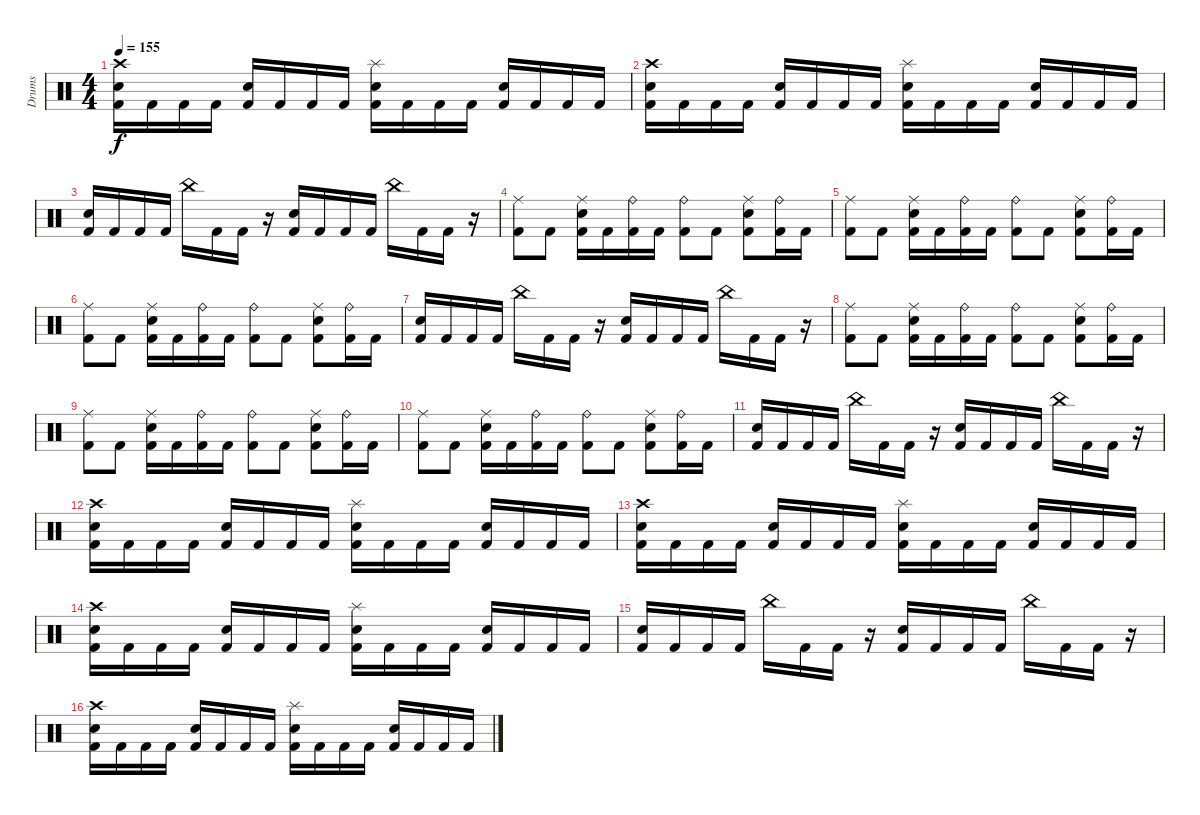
\track ("Drums" "Drums") {instrument percussion}
\staff {score}
\articulation defaults
\ts (4 4)
\tempo 155
\clef neutral
\ks c
("Crash high (hit)" "Snare (hit) 2" "Kick (hit) 2").16{dy f} "Kick (hit) 2".16 "Kick (hit) 2".16 "Kick (hit) 2".16 ("Snare (hit) 2" "Kick (hit) 2").16 "Kick (hit) 2".16 "Kick (hit) 2".16 "Kick (hit) 2".16 ("Splash (hit)" "Snare (hit) 2" "Kick (hit) 2").16 "Kick (hit) 2".16 "Kick (hit) 2".16 "Kick (hit) 2".16 ("Snare (hit) 2" "Kick (hit) 2").16 "Kick (hit) 2".16 "Kick (hit) 2".16 "Kick (hit) 2".16 |
("Crash high (hit)" "Snare (hit) 2" "Kick (hit) 2").16 "Kick (hit) 2".16 "Kick (hit) 2".16 "Kick (hit) 2".16 ("Snare (hit) 2" "Kick (hit) 2").16 "Kick (hit) 2".16 "Kick (hit) 2".16 "Kick (hit) 2".16 ("Splash (hit)" "Snare (hit) 2" "Kick (hit) 2").16 "Kick (hit) 2".16 "Kick (hit) 2".16 "Kick (hit) 2".16 ("Snare (hit) 2" "Kick (hit) 2").16 "Kick (hit) 2".16 "Kick (hit) 2".16 "Kick (hit) 2".16 |
("Snare (hit) 2" "Kick (hit) 2").16 "Kick (hit) 2".16 "Kick (hit) 2".16 "Kick (hit) 2".16 "China (hit)".16 "Kick (hit) 2".16 "Kick (hit) 2".16 r.16 ("Snare (hit) 2" "Kick (hit) 2").16 "Kick (hit) 2".16 "Kick (hit) 2".16 "Kick (hit) 2".16 "China (hit)".16 "Kick (hit) 2".16 "Kick (hit) 2".16 r.16 |
("Ride (middle)" "Kick (hit) 2").8 "Kick (hit) 2".8 ("Ride (middle)" "Snare (hit) 2" "Kick (hit) 2").16 "Kick (hit) 2".16 ("Ride (bell)" "Kick (hit) 2").16 "Kick (hit) 2".16 ("Ride (bell)" "Kick (hit) 2").8 "Kick (hit) 2".8 ("Ride (middle)" "Snare (hit) 2" "Kick (hit) 2").8 ("Ride (bell)" "Kick (hit) 2").16 "Kick (hit) 2".16 |
("Ride (middle)" "Kick (hit) 2").8 "Kick (hit) 2".8 ("Ride (middle)" "Snare (hit) 2" "Kick (hit) 2").16 "Kick (hit) 2".16 ("Ride (bell)" "Kick (hit) 2").16 "Kick (hit) 2".16 ("Ride (bell)" "Kick (hit) 2").8 "Kick (hit) 2".8 ("Ride (middle)" "Snare (hit) 2" "Kick (hit) 2").8 ("Ride (bell)" "Kick (hit) 2").16 "Kick (hit) 2".16 |
("Ride (middle)" "Kick (hit) 2").8 "Kick (hit) 2".8 ("Ride (middle)" "Snare (hit) 2" "Kick (hit) 2").16 "Kick (hit) 2".16 ("Ride (bell)" "Kick (hit) 2").16 "Kick (hit) 2".16 ("Ride (bell)" "Kick (hit) 2").8 "Kick (hit) 2".8 ("Ride (middle)" "Snare (hit) 2" "Kick (hit) 2").8 ("Ride (bell)" "Kick (hit) 2").16 "Kick (hit) 2".16 |
("Snare (hit) 2" "Kick (hit) 2").16 "Kick (hit) 2".16 "Kick (hit) 2".16 "Kick (hit) 2".16 "China (hit)".16 "Kick (hit) 2".16 "Kick (hit) 2".16 r.16 ("Snare (hit) 2" "Kick (hit) 2").16 "Kick (hit) 2".16 "Kick (hit) 2".16 "Kick (hit) 2".16 "China (hit)".16 "Kick (hit) 2".16 "Kick (hit) 2".16 r.16 |
("Ride (middle)" "Kick (hit) 2").8 "Kick (hit) 2".8 ("Ride (middle)" "Snare (hit) 2" "Kick (hit) 2").16 "Kick (hit) 2".16 ("Ride (bell)" "Kick (hit) 2").16 "Kick (hit) 2".16 ("Ride (bell)" "Kick (hit) 2").8 "Kick (hit) 2".8 ("Ride (middle)" "Snare (hit) 2" "Kick (hit) 2").8 ("Ride (bell)" "Kick (hit) 2").16 "Kick (hit) 2".16 |
("Ride (middle)" "Kick (hit) 2").8 "Kick (hit) 2".8 ("Ride (middle)" "Snare (hit) 2" "Kick (hit) 2").16 "Kick (hit) 2".16 ("Ride (bell)" "Kick (hit) 2").16 "Kick (hit) 2".16 ("Ride (bell)" "Kick (hit) 2").8 "Kick (hit) 2".8 ("Ride (middle)" "Snare (hit) 2" "Kick (hit) 2").8 ("Ride (bell)" "Kick (hit) 2").16 "Kick (hit) 2".16 |
("Ride (middle)" "Kick (hit) 2").8 "Kick (hit) 2".8 ("Ride (middle)" "Snare (hit) 2" "Kick (hit) 2").16 "Kick (hit) 2".16 ("Ride (bell)" "Kick (hit) 2").16 "Kick (hit) 2".16 ("Ride (bell)" "Kick (hit) 2").8 "Kick (hit) 2".8 ("Ride (middle)" "Snare (hit) 2" "Kick (hit) 2").8 ("Ride (bell)" "Kick (hit) 2").16 "Kick (hit) 2".16 |
("Snare (hit) 2" "Kick (hit) 2").16 "Kick (hit) 2".16 "Kick (hit) 2".16 "Kick (hit) 2".16 "China (hit)".16 "Kick (hit) 2".16 "Kick (hit) 2".16 r.16 ("Snare (hit) 2" "Kick (hit) 2").16 "Kick (hit) 2".16 "Kick (hit) 2".16 "Kick (hit) 2".16 "China (hit)".16 "Kick (hit) 2".16 "Kick (hit) 2".16 r.16 |
("Crash high (hit)" "Snare (hit) 2" "Kick (hit) 2").16 "Kick (hit) 2".16 "Kick (hit) 2".16 "Kick (hit) 2".16 ("Snare (hit) 2" "Kick (hit) 2").16 "Kick (hit) 2".16 "Kick (hit) 2".16 "Kick (hit) 2".16 ("Splash (hit)" "Snare (hit) 2" "Kick (hit) 2").16 "Kick (hit) 2".16 "Kick (hit) 2".16 "Kick (hit) 2".16 ("Snare (hit) 2" "Kick (hit) 2").16 "Kick (hit) 2".16 "Kick (hit) 2".16 "Kick (hit) 2".16 |
("Crash high (hit)" "Snare (hit) 2" "Kick (hit) 2").16 "Kick (hit) 2".16 "Kick (hit) 2".16 "Kick (hit) 2".16 ("Snare (hit) 2" "Kick (hit) 2").16 "Kick (hit) 2".16 "Kick (hit) 2".16 "Kick (hit) 2".16 ("Splash (hit)" "Snare (hit) 2" "Kick (hit) 2").16 "Kick (hit) 2".16 "Kick (hit) 2".16 "Kick (hit) 2".16 ("Snare (hit) 2" "Kick (hit) 2").16 "Kick (hit) 2".16 "Kick (hit) 2".16 "Kick (hit) 2".16 |
("Crash high (hit)" "Snare (hit) 2" "Kick (hit) 2").16 "Kick (hit) 2".16 "Kick (hit) 2".16 "Kick (hit) 2".16 ("Snare (hit) 2" "Kick (hit) 2").16 "Kick (hit) 2".16 "Kick (hit) 2".16 "Kick (hit) 2".16 ("Splash (hit)" "Snare (hit) 2" "Kick (hit) 2").16 "Kick (hit) 2".16 "Kick (hit) 2".16 "Kick (hit) 2".16 ("Snare (hit) 2" "Kick (hit) 2").16 "Kick (hit) 2".16 "Kick (hit) 2".16 "Kick (hit) 2".16 |
("Snare (hit) 2" "Kick (hit) 2").16 "Kick (hit) 2".16 "Kick (hit) 2".16 "Kick (hit) 2".16 "China (hit)".16 "Kick (hit) 2".16 "Kick (hit) 2".16 r.16 ("Snare (hit) 2" "Kick (hit) 2").16 "Kick (hit) 2".16 "Kick (hit) 2".16 "Kick (hit) 2".16 "China (hit)".16 "Kick (hit) 2".16 "Kick (hit) 2".16 r.16 |
("Crash high (hit)" "Snare (hit) 2" "Kick (hit) 2").16 "Kick (hit) 2".16 "Kick (hit) 2".16 "Kick (hit) 2".16 ("Snare (hit) 2" "Kick (hit) 2").16 "Kick (hit) 2".16 "Kick (hit) 2".16 "Kick (hit) 2".16 ("Splash (hit)" "Snare (hit) 2" "Kick (hit) 2").16 "Kick (hit) 2".16 "Kick (hit) 2".16 "Kick (hit) 2".16 ("Snare (hit) 2" "Kick (hit) 2").16 "Kick (hit) 2".16 "Kick (hit) 2".16 "Kick (hit) 2".16
